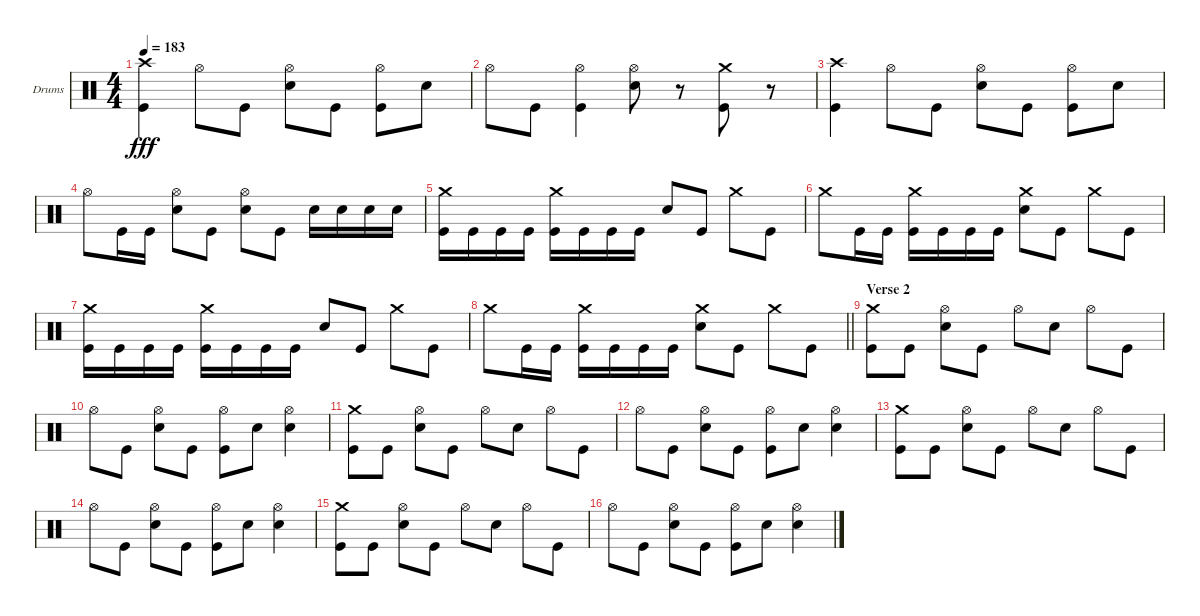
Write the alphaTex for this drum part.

\bracketExtendMode groupsimilarinstruments
\firstSystemTrackNameOrientation horizontal
\otherSystemsTrackNameOrientation horizontal
\track ("Drumkit" "Drums") {instrument percussion}
\staff {score}
\articulation defaults
\ts (4 4)
\tempo 183
\clef neutral
\scale
0.333333
\ks c
("Kick (hit)" "Crash high (hit)").4{dy fff} "Hi-Hat (open)".8 "Kick (hit)".8 ("Snare (hit) 2" "Hi-Hat (open)").8 "Kick (hit)".8 ("Kick (hit)" "Hi-Hat (open)").8 "Snare (hit) 2".8 |
\scale
0.333333 "Hi-Hat (open)".8 "Kick (hit)".8 ("Kick (hit)" "Hi-Hat (open)").4 ("Snare (hit) 2" "Hi-Hat (open)").8 r.8 ("Kick (hit)" "Crash medium (hit)").8 r.8 |
\scale
0.333333 ("Kick (hit)" "Crash high (hit)").4 "Hi-Hat (open)".8 "Kick (hit)".8 ("Snare (hit) 2" "Hi-Hat (open)").8 "Kick (hit)".8 ("Kick (hit)" "Hi-Hat (open)").8 "Snare (hit) 2".8 |
\scale
0.333333 "Hi-Hat (open)".8 "Kick (hit)".16 "Kick (hit)".16 ("Snare (hit) 2" "Hi-Hat (open)").8 "Kick (hit)".8 ("Snare (hit) 2" "Hi-Hat (open)").8 "Kick (hit)".8 "Snare (hit) 2".16 "Snare (hit) 2".16 "Snare (hit) 2".16 "Snare (hit) 2".16 |
\scale
0.333333 ("Kick (hit)" "Crash medium (hit)").16 "Kick (hit)".16 "Kick (hit)".16 "Kick (hit)".16 ("Crash medium (hit)" "Kick (hit)").16 "Kick (hit)".16 "Kick (hit)".16 "Kick (hit)".16 "Snare (hit) 2".8 "Kick (hit)".8 "Crash medium (hit)".8 "Kick (hit)".8 |
\scale
0.333333 "Crash medium (hit)".8 "Kick (hit)".16 "Kick (hit)".16 ("Kick (hit)" "Crash medium (hit)").16 "Kick (hit)".16 "Kick (hit)".16 "Kick (hit)".16 ("Snare (hit) 2" "Crash medium (hit)").8 "Kick (hit)".8 "Crash medium (hit)".8 "Kick (hit)".8 |
\scale
0.333333 ("Kick (hit)" "Crash medium (hit)").16 "Kick (hit)".16 "Kick (hit)".16 "Kick (hit)".16 ("Crash medium (hit)" "Kick (hit)").16 "Kick (hit)".16 "Kick (hit)".16 "Kick (hit)".16 "Snare (hit) 2".8 "Kick (hit)".8 "Crash medium (hit)".8 "Kick (hit)".8 |
\scale
0.333333
\barLineRight lightlight "Crash medium (hit)".8 "Kick (hit)".16 "Kick (hit)".16
("Kick (hit)" "Crash medium (hit)").16 "Kick (hit)".16 "Kick (hit)".16 "Kick (hit)".16 ("Snare (hit) 2" "Crash medium (hit)").8 "Kick (hit)".8 "Crash medium (hit)".8 "Kick (hit)".8 |
\section ("" "Verse 2")
\scale
0.333333 ("Kick (hit)" "Crash medium (hit)").8 "Kick (hit)".8 ("Snare (hit) 2" "Hi-Hat (open)").8 "Kick (hit)".8 "Hi-Hat (open)".8 "Snare (hit) 2".8 "Hi-Hat (open)".8 "Kick (hit)".8 |
\scale
0.333333 "Hi-Hat (open)".8 "Kick (hit)".8 ("Snare (hit) 2" "Hi-Hat (open)").8 "Kick (hit)".8 ("Kick (hit)" "Hi-Hat (open)").8 "Snare (hit) 2".8 ("Snare (hit) 2" "Hi-Hat (open)").4 |
\scale
0.333333 ("Kick (hit)" "Crash medium (hit)").8 "Kick (hit)".8 ("Snare (hit) 2" "Hi-Hat (open)").8 "Kick (hit)".8 "Hi-Hat (open)".8 "Snare (hit) 2".8 "Hi-Hat (open)".8 "Kick (hit)".8 |
\scale
0.333333 "Hi-Hat (open)".8 "Kick (hit)".8 ("Snare (hit) 2" "Hi-Hat (open)").8 "Kick (hit)".8 ("Kick (hit)" "Hi-Hat (open)").8 "Snare (hit) 2".8 ("Snare (hit) 2" "Hi-Hat (open)").4 |
\scale
0.333333 ("Kick (hit)" "Crash medium (hit)").8 "Kick (hit)".8 ("Snare (hit) 2" "Hi-Hat (open)").8 "Kick (hit)".8 "Hi-Hat (open)".8 "Snare (hit) 2".8 "Hi-Hat (open)".8 "Kick (hit)".8 |
\scale
0.333333 "Hi-Hat (open)".8 "Kick (hit)".8 ("Snare (hit) 2" "Hi-Hat (open)").8 "Kick (hit)".8 ("Kick (hit)" "Hi-Hat (open)").8 "Snare (hit) 2".8 ("Snare (hit) 2" "Hi-Hat (open)").4 |
\scale
0.333333 ("Kick (hit)" "Crash medium (hit)").8 "Kick (hit)".8 ("Snare (hit) 2" "Hi-Hat (open)").8 "Kick (hit)".8 "Hi-Hat (open)".8 "Snare (hit) 2".8 "Hi-Hat (open)".8 "Kick (hit)".8 |
\scale
0.333333 "Hi-Hat (open)".8 "Kick (hit)".8 ("Snare (hit) 2" "Hi-Hat (open)").8 "Kick (hit)".8 ("Kick (hit)" "Hi-Hat (open)").8 "Snare (hit) 2".8 ("Snare (hit) 2" "Hi-Hat (open)").4
